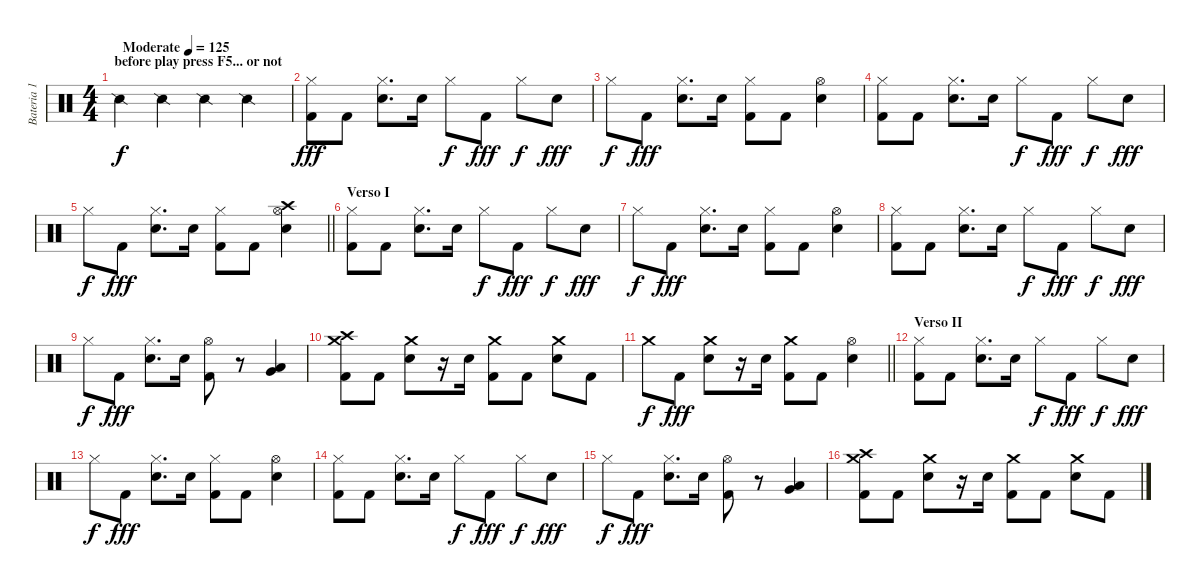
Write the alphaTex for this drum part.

\track ("Bateria 1" "Bateria 1") {instrument percussion}
\staff {score}
\articulation defaults
\ts (4 4)
\section ("" "before play press F5... or not")
\tempo (125 "Moderate")
\clef neutral
\ks c "Snare (side stick) 2".4{dy f} "Snare (side stick) 2".4 "Snare (side stick) 2".4 "Snare (side stick) 2".4
|
("Hi-Hat (closed)" "Kick (hit) 2").8{dy fff} "Kick (hit) 2".8 ("Hi-Hat (closed)" "Electric Snare (hit)").8{d} "Electric Snare (hit)".16 "Hi-Hat (closed)".8{dy f} "Kick (hit) 2".8{dy fff} "Hi-Hat (closed)".8{dy f} "Electric Snare (hit)".8{dy fff} |
"Hi-Hat (closed)".8{dy f} "Kick (hit) 2".8{dy fff} ("Hi-Hat (closed)" "Electric Snare (hit)").8{d} "Electric Snare (hit)".16 ("Hi-Hat (closed)" "Kick (hit) 2").8 "Kick (hit) 2".8 ("Hi-Hat (open)" "Electric Snare (hit)").4 |
("Hi-Hat (closed)" "Kick (hit) 2").8 "Kick (hit) 2".8 ("Hi-Hat (closed)" "Electric Snare (hit)").8{d} "Electric Snare (hit)".16 "Hi-Hat (closed)".8{dy f} "Kick (hit) 2".8{dy fff} "Hi-Hat (closed)".8{dy f} "Electric Snare (hit)".8{dy fff} |
\barLineRight lightlight "Hi-Hat (closed)".8{dy f} "Kick (hit) 2".8{dy fff}
("Hi-Hat (closed)" "Electric Snare (hit)").8{d} "Electric Snare (hit)".16 ("Hi-Hat (closed)" "Kick (hit) 2").8 "Kick (hit) 2".8 ("Crash high (hit)" "Hi-Hat (open)" "Electric Snare (hit)").4 |
\section ("" "Verso I")
("Hi-Hat (closed)" "Kick (hit) 2").8 "Kick (hit) 2".8 ("Hi-Hat (closed)" "Electric Snare (hit)").8{d} "Electric Snare (hit)".16 "Hi-Hat (closed)".8{dy f} "Kick (hit) 2".8{dy fff} "Hi-Hat (closed)".8{dy f} "Electric Snare (hit)".8{dy fff} |
"Hi-Hat (closed)".8{dy f} "Kick (hit) 2".8{dy fff} ("Hi-Hat (closed)" "Electric Snare (hit)").8{d} "Electric Snare (hit)".16 ("Hi-Hat (closed)" "Kick (hit) 2").8 "Kick (hit) 2".8 ("Hi-Hat (open)" "Electric Snare (hit)").4 |
("Hi-Hat (closed)" "Kick (hit) 2").8 "Kick (hit) 2".8 ("Hi-Hat (closed)" "Electric Snare (hit)").8{d} "Electric Snare (hit)".16 "Hi-Hat (closed)".8{dy f} "Kick (hit) 2".8{dy fff} "Hi-Hat (closed)".8{dy f} "Electric Snare (hit)".8{dy fff} |
"Hi-Hat (closed)".8{dy f} "Kick (hit) 2".8{dy fff} ("Hi-Hat (closed)" "Electric Snare (hit)").8{d} "Electric Snare (hit)".16 ("Hi-Hat (open)" "Kick (hit) 2").8 r.8 ("Very Low Tom (hit)" "Low Floor Tom (hit)").4 |
("Crash high (hit)" "Crash medium (hit)" "Kick (hit) 2").8 "Kick (hit) 2".8 ("Crash medium (hit)" "Electric Snare (hit)").8 r.16 "Electric Snare (hit)".16 ("Crash medium (hit)" "Kick (hit) 2").8 "Kick (hit) 2".8 ("Crash medium (hit)" "Electric Snare (hit)").8 "Kick (hit) 2".8 |
\barLineRight lightlight "Crash medium (hit)".8{dy f} "Kick (hit) 2".8{dy fff}
("Crash medium (hit)" "Electric Snare (hit)").8 r.16 "Electric Snare (hit)".16 ("Crash medium (hit)" "Kick (hit) 2").8 "Kick (hit) 2".8 ("Hi-Hat (open)" "Electric Snare (hit)").4 |
\section ("" "Verso II")
("Hi-Hat (closed)" "Kick (hit) 2").8 "Kick (hit) 2".8 ("Hi-Hat (closed)" "Electric Snare (hit)").8{d} "Electric Snare (hit)".16 "Hi-Hat (closed)".8{dy f} "Kick (hit) 2".8{dy fff} "Hi-Hat (closed)".8{dy f} "Electric Snare (hit)".8{dy fff} |
"Hi-Hat (closed)".8{dy f} "Kick (hit) 2".8{dy fff} ("Hi-Hat (closed)" "Electric Snare (hit)").8{d} "Electric Snare (hit)".16 ("Hi-Hat (closed)" "Kick (hit) 2").8 "Kick (hit) 2".8 ("Hi-Hat (open)" "Electric Snare (hit)").4 |
("Hi-Hat (closed)" "Kick (hit) 2").8 "Kick (hit) 2".8 ("Hi-Hat (closed)" "Electric Snare (hit)").8{d} "Electric Snare (hit)".16 "Hi-Hat (closed)".8{dy f} "Kick (hit) 2".8{dy fff} "Hi-Hat (closed)".8{dy f} "Electric Snare (hit)".8{dy fff} |
"Hi-Hat (closed)".8{dy f} "Kick (hit) 2".8{dy fff} ("Hi-Hat (closed)" "Electric Snare (hit)").8{d} "Electric Snare (hit)".16 ("Hi-Hat (open)" "Kick (hit) 2").8 r.8 ("Very Low Tom (hit)" "Low Floor Tom (hit)").4 |
("Crash high (hit)" "Crash medium (hit)" "Kick (hit) 2").8 "Kick (hit) 2".8 ("Crash medium (hit)" "Electric Snare (hit)").8 r.16 "Electric Snare (hit)".16 ("Crash medium (hit)" "Kick (hit) 2").8 "Kick (hit) 2".8 ("Crash medium (hit)" "Electric Snare (hit)").8 "Kick (hit) 2".8
